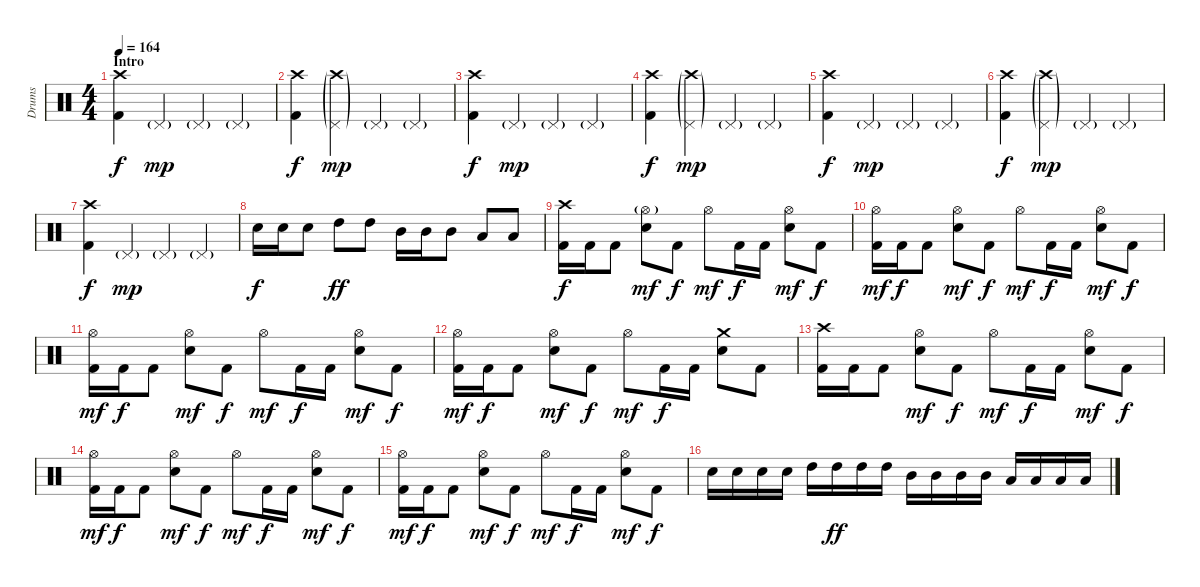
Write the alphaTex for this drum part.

\track ("Drums" "Drums") {instrument percussion}
\staff {score}
\articulation defaults
\ts (4 4)
\section ("" "Intro")
\tempo 164
\clef neutral
\ks c
("Crash high (hit)" "Kick (hit) 2").4{dy f} "Pedal Hi-Hat (hit)"{g}.4{dy mp} "Pedal Hi-Hat (hit)"{g}.4 "Pedal Hi-Hat (hit)"{g}.4 |
("Crash high (hit)" "Kick (hit) 2").4{dy f} ("Crash high (hit)"{g} "Pedal Hi-Hat (hit)"{g}).4{dy mp} "Pedal Hi-Hat (hit)"{g}.4 "Pedal Hi-Hat (hit)"{g}.4 |
("Crash high (hit)" "Kick (hit) 2").4{dy f} "Pedal Hi-Hat (hit)"{g}.4{dy mp} "Pedal Hi-Hat (hit)"{g}.4 "Pedal Hi-Hat (hit)"{g}.4 |
("Crash high (hit)" "Kick (hit) 2").4{dy f} ("Crash high (hit)"{g} "Pedal Hi-Hat (hit)"{g}).4{dy mp} "Pedal Hi-Hat (hit)"{g}.4 "Pedal Hi-Hat (hit)"{g}.4 |
("Crash high (hit)" "Kick (hit) 2").4{dy f} "Pedal Hi-Hat (hit)"{g}.4{dy mp} "Pedal Hi-Hat (hit)"{g}.4 "Pedal Hi-Hat (hit)"{g}.4 |
("Crash high (hit)" "Kick (hit) 2").4{dy f} ("Crash high (hit)"{g} "Pedal Hi-Hat (hit)"{g}).4{dy mp} "Pedal Hi-Hat (hit)"{g}.4 "Pedal Hi-Hat (hit)"{g}.4 |
("Crash high (hit)" "Kick (hit) 2").4{dy f} "Pedal Hi-Hat (hit)"{g}.4{dy mp} "Pedal Hi-Hat (hit)"{g}.4 "Pedal Hi-Hat (hit)"{g}.4 |
"Electric Snare (hit)".16{dy f} "Electric Snare (hit)".16 "Electric Snare (hit)".8 "High Tom (hit)".8{dy ff} "High Tom (hit)".8 "Mid Tom (hit)".16 "Mid Tom (hit)".16 "Mid Tom (hit)".8 "Low Tom (hit)".8 "Low Tom (hit)".8 |
("Crash high (hit)" "Kick (hit) 2").16{dy f} "Kick (hit) 2".16 "Kick (hit) 2".8 ("Hi-Hat (open)"{g} "Electric Snare (hit)").8{dy mf} "Kick (hit) 2".8{dy f} "Hi-Hat (open)".8{dy mf} "Kick (hit) 2".16{dy f} "Kick (hit) 2".16 ("Hi-Hat (open)" "Electric Snare (hit)").8{dy mf} "Kick (hit) 2".8{dy f} |
("Hi-Hat (open)" "Kick (hit) 2").16{dy mf} "Kick (hit) 2".16{dy f} "Kick (hit) 2".8 ("Hi-Hat (open)" "Electric Snare (hit)").8{dy mf} "Kick (hit) 2".8{dy f} "Hi-Hat (open)".8{dy mf} "Kick (hit) 2".16{dy f} "Kick (hit) 2".16 ("Hi-Hat (open)" "Electric Snare (hit)").8{dy mf} "Kick (hit) 2".8{dy f} |
("Hi-Hat (open)" "Kick (hit) 2").16{dy mf} "Kick (hit) 2".16{dy f} "Kick (hit) 2".8 ("Hi-Hat (open)" "Electric Snare (hit)").8{dy mf} "Kick (hit) 2".8{dy f} "Hi-Hat (open)".8{dy mf} "Kick (hit) 2".16{dy f} "Kick (hit) 2".16 ("Hi-Hat (open)" "Electric Snare (hit)").8{dy mf} "Kick (hit) 2".8{dy f} |
("Hi-Hat (open)" "Kick (hit) 2").16{dy mf} "Kick (hit) 2".16{dy f} "Kick (hit) 2".8 ("Hi-Hat (open)" "Electric Snare (hit)").8{dy mf} "Kick (hit) 2".8{dy f} "Hi-Hat (open)".8{dy mf} "Kick (hit) 2".16{dy f} "Kick (hit) 2".16 ("Crash medium (hit)" "Electric Snare (hit)").8 "Kick (hit) 2".8 |
("Crash high (hit)" "Kick (hit) 2").16 "Kick (hit) 2".16 "Kick (hit) 2".8 ("Hi-Hat (open)" "Electric Snare (hit)").8{dy mf} "Kick (hit) 2".8{dy f} "Hi-Hat (open)".8{dy mf} "Kick (hit) 2".16{dy f} "Kick (hit) 2".16 ("Hi-Hat (open)" "Electric Snare (hit)").8{dy mf} "Kick (hit) 2".8{dy f} |
("Hi-Hat (open)" "Kick (hit) 2").16{dy mf} "Kick (hit) 2".16{dy f} "Kick (hit) 2".8 ("Hi-Hat (open)" "Electric Snare (hit)").8{dy mf} "Kick (hit) 2".8{dy f} "Hi-Hat (open)".8{dy mf} "Kick (hit) 2".16{dy f} "Kick (hit) 2".16 ("Hi-Hat (open)" "Electric Snare (hit)").8{dy mf} "Kick (hit) 2".8{dy f} |
("Hi-Hat (open)" "Kick (hit) 2").16{dy mf} "Kick (hit) 2".16{dy f} "Kick (hit) 2".8 ("Hi-Hat (open)" "Electric Snare (hit)").8{dy mf} "Kick (hit) 2".8{dy f} "Hi-Hat (open)".8{dy mf} "Kick (hit) 2".16{dy f} "Kick (hit) 2".16 ("Hi-Hat (open)" "Electric Snare (hit)").8{dy mf} "Kick (hit) 2".8{dy f} |
"Electric Snare (hit)".16 "Electric Snare (hit)".16 "Electric Snare (hit)".16 "Electric Snare (hit)".16 "High Tom (hit)".16 "High Tom (hit)".16{dy ff} "High Tom (hit)".16 "High Tom (hit)".16 "Mid Tom (hit)".16 "Mid Tom (hit)".16 "Mid Tom (hit)".16 "Mid Tom (hit)".16 "Low Tom (hit)".16 "Low Tom (hit)".16 "Low Tom (hit)".16 "Low Tom (hit)".16
